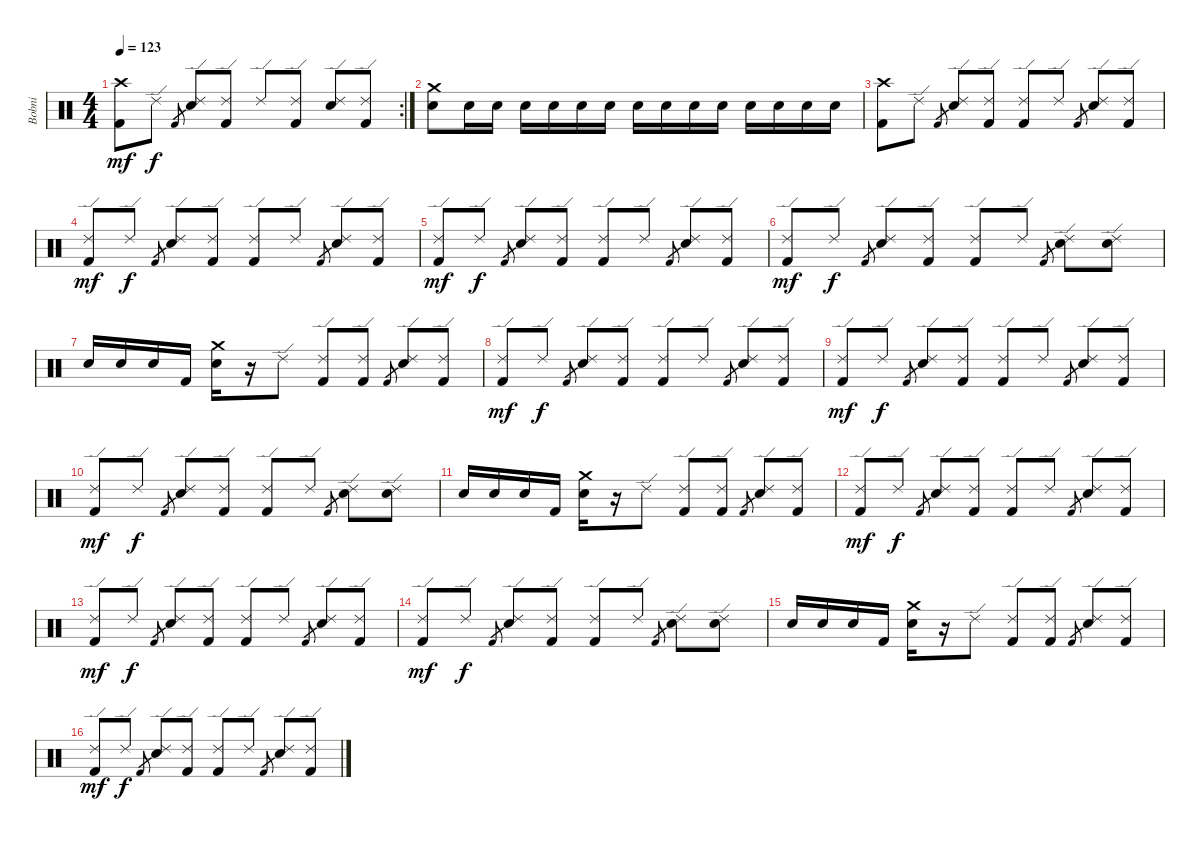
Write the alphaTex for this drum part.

\track ("Bobni" "Bobni") {instrument percussion}
\staff {score}
\articulation defaults
\rc 2
\ts (4 4)
\tempo 123
\clef neutral
\ks c
("Crash high (hit)" "Kick (hit) 2").8{dy mf} "Ride (edge) 2".8{dy f} "Kick (hit) 2".8{gr} ("Ride (edge) 2" "Snare (hit) 2").8 ("Ride (edge) 2" "Kick (hit) 2").8 "Ride (edge) 2".8 ("Ride (edge) 2" "Kick (hit) 2").8 ("Ride (edge) 2" "Snare (hit) 2").8 ("Ride (edge) 2" "Kick (hit) 2").8 |
("Crash medium (hit)" "Snare (hit) 2").8 "Snare (hit) 2".16 "Snare (hit) 2".16 "Snare (hit) 2".16 "Snare (hit) 2".16 "Snare (hit) 2".16 "Snare (hit) 2".16 "Snare (hit) 2".16 "Snare (hit) 2".16 "Snare (hit) 2".16 "Snare (hit) 2".16 "Snare (hit) 2".16 "Snare (hit) 2".16 "Snare (hit) 2".16 "Snare (hit) 2".16 |
("Crash high (hit)" "Kick (hit) 2").8 "Ride (edge) 2".8 "Kick (hit) 2".8{gr} ("Ride (edge) 2" "Snare (hit) 2").8 ("Ride (edge) 2" "Kick (hit) 2").8 ("Ride (edge) 2" "Kick (hit) 2").8 "Ride (edge) 2".8 "Kick (hit) 2".8{gr} ("Ride (edge) 2" "Snare (hit) 2").8 ("Ride (edge) 2" "Kick (hit) 2").8 |
("Ride (edge) 2" "Kick (hit) 2").8{dy mf} "Ride (edge) 2".8{dy f} "Kick (hit) 2".8{gr} ("Ride (edge) 2" "Snare (hit) 2").8 ("Ride (edge) 2" "Kick (hit) 2").8 ("Ride (edge) 2" "Kick (hit) 2").8 "Ride (edge) 2".8 "Kick (hit) 2".8{gr} ("Ride (edge) 2" "Snare (hit) 2").8 ("Ride (edge) 2" "Kick (hit) 2").8 |
("Ride (edge) 2" "Kick (hit) 2").8{dy mf} "Ride (edge) 2".8{dy f} "Kick (hit) 2".8{gr} ("Ride (edge) 2" "Snare (hit) 2").8 ("Ride (edge) 2" "Kick (hit) 2").8 ("Ride (edge) 2" "Kick (hit) 2").8 "Ride (edge) 2".8 "Kick (hit) 2".8{gr} ("Ride (edge) 2" "Snare (hit) 2").8 ("Ride (edge) 2" "Kick (hit) 2").8 |
("Ride (edge) 2" "Kick (hit) 2").8{dy mf} "Ride (edge) 2".8{dy f} "Kick (hit) 2".8{gr} ("Ride (edge) 2" "Snare (hit) 2").8 ("Ride (edge) 2" "Kick (hit) 2").8 ("Ride (edge) 2" "Kick (hit) 2").8 "Ride (edge) 2".8 "Kick (hit) 2".8{gr} ("Ride (edge) 2" "Snare (hit) 2").8 ("Ride (edge) 2" "Snare (hit) 2").8 |
"Snare (hit) 2".16 "Snare (hit) 2".16 "Snare (hit) 2".16 "Kick (hit) 2".16 ("Crash medium (hit)" "Snare (hit) 2").16 r.16 "Ride (edge) 2".8 ("Ride (edge) 2" "Kick (hit) 2").8 ("Ride (edge) 2" "Kick (hit) 2").8 "Kick (hit) 2".8{gr} ("Ride (edge) 2" "Snare (hit) 2").8 ("Ride (edge) 2" "Kick (hit) 2").8 |
("Ride (edge) 2" "Kick (hit) 2").8{dy mf} "Ride (edge) 2".8{dy f} "Kick (hit) 2".8{gr} ("Ride (edge) 2" "Snare (hit) 2").8 ("Ride (edge) 2" "Kick (hit) 2").8 ("Ride (edge) 2" "Kick (hit) 2").8 "Ride (edge) 2".8 "Kick (hit) 2".8{gr} ("Ride (edge) 2" "Snare (hit) 2").8 ("Ride (edge) 2" "Kick (hit) 2").8 |
("Ride (edge) 2" "Kick (hit) 2").8{dy mf} "Ride (edge) 2".8{dy f} "Kick (hit) 2".8{gr} ("Ride (edge) 2" "Snare (hit) 2").8 ("Ride (edge) 2" "Kick (hit) 2").8 ("Ride (edge) 2" "Kick (hit) 2").8 "Ride (edge) 2".8 "Kick (hit) 2".8{gr} ("Ride (edge) 2" "Snare (hit) 2").8 ("Ride (edge) 2" "Kick (hit) 2").8 |
("Ride (edge) 2" "Kick (hit) 2").8{dy mf} "Ride (edge) 2".8{dy f} "Kick (hit) 2".8{gr} ("Ride (edge) 2" "Snare (hit) 2").8 ("Ride (edge) 2" "Kick (hit) 2").8 ("Ride (edge) 2" "Kick (hit) 2").8 "Ride (edge) 2".8 "Kick (hit) 2".8{gr} ("Ride (edge) 2" "Snare (hit) 2").8 ("Ride (edge) 2" "Snare (hit) 2").8 |
"Snare (hit) 2".16 "Snare (hit) 2".16 "Snare (hit) 2".16 "Kick (hit) 2".16 ("Crash medium (hit)" "Snare (hit) 2").16 r.16 "Ride (edge) 2".8 ("Ride (edge) 2" "Kick (hit) 2").8 ("Ride (edge) 2" "Kick (hit) 2").8 "Kick (hit) 2".8{gr} ("Ride (edge) 2" "Snare (hit) 2").8 ("Ride (edge) 2" "Kick (hit) 2").8 |
("Ride (edge) 2" "Kick (hit) 2").8{dy mf} "Ride (edge) 2".8{dy f} "Kick (hit) 2".8{gr} ("Ride (edge) 2" "Snare (hit) 2").8 ("Ride (edge) 2" "Kick (hit) 2").8 ("Ride (edge) 2" "Kick (hit) 2").8 "Ride (edge) 2".8 "Kick (hit) 2".8{gr} ("Ride (edge) 2" "Snare (hit) 2").8 ("Ride (edge) 2" "Kick (hit) 2").8 |
("Ride (edge) 2" "Kick (hit) 2").8{dy mf} "Ride (edge) 2".8{dy f} "Kick (hit) 2".8{gr} ("Ride (edge) 2" "Snare (hit) 2").8 ("Ride (edge) 2" "Kick (hit) 2").8 ("Ride (edge) 2" "Kick (hit) 2").8 "Ride (edge) 2".8 "Kick (hit) 2".8{gr} ("Ride (edge) 2" "Snare (hit) 2").8 ("Ride (edge) 2" "Kick (hit) 2").8 |
("Ride (edge) 2" "Kick (hit) 2").8{dy mf} "Ride (edge) 2".8{dy f} "Kick (hit) 2".8{gr} ("Ride (edge) 2" "Snare (hit) 2").8 ("Ride (edge) 2" "Kick (hit) 2").8 ("Ride (edge) 2" "Kick (hit) 2").8 "Ride (edge) 2".8 "Kick (hit) 2".8{gr} ("Ride (edge) 2" "Snare (hit) 2").8 ("Ride (edge) 2" "Snare (hit) 2").8 |
"Snare (hit) 2".16 "Snare (hit) 2".16 "Snare (hit) 2".16 "Kick (hit) 2".16 ("Crash medium (hit)" "Snare (hit) 2").16 r.16 "Ride (edge) 2".8 ("Ride (edge) 2" "Kick (hit) 2").8 ("Ride (edge) 2" "Kick (hit) 2").8 "Kick (hit) 2".8{gr} ("Ride (edge) 2" "Snare (hit) 2").8 ("Ride (edge) 2" "Kick (hit) 2").8 |
("Ride (edge) 2" "Kick (hit) 2").8{dy mf} "Ride (edge) 2".8{dy f} "Kick (hit) 2".8{gr} ("Ride (edge) 2" "Snare (hit) 2").8 ("Ride (edge) 2" "Kick (hit) 2").8 ("Ride (edge) 2" "Kick (hit) 2").8 "Ride (edge) 2".8 "Kick (hit) 2".8{gr} ("Ride (edge) 2" "Snare (hit) 2").8 ("Ride (edge) 2" "Kick (hit) 2").8
